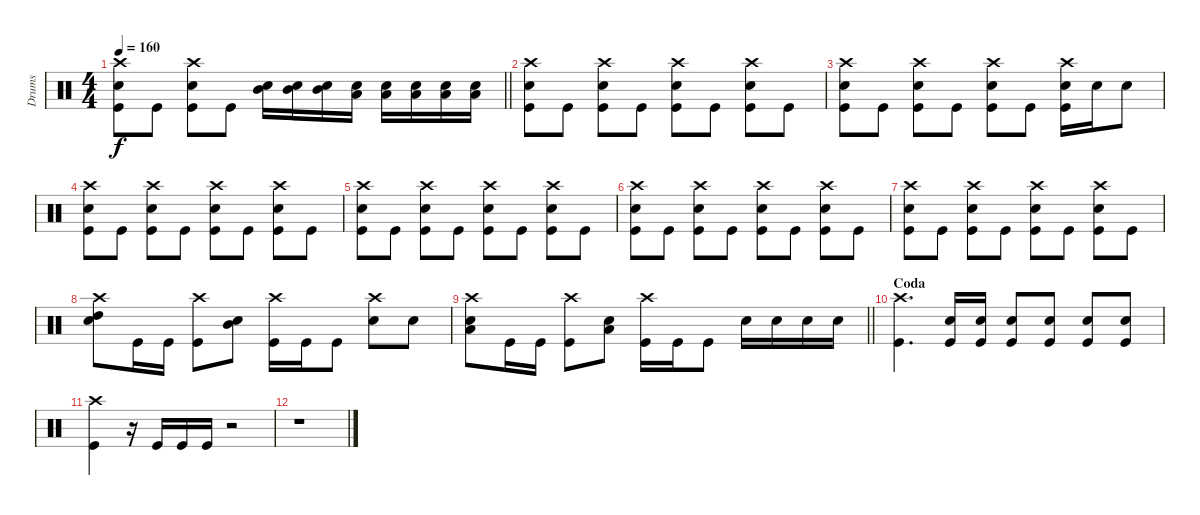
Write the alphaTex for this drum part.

\track ("Drums " "Drums ") {instrument percussion}
\staff {score}
\articulation defaults
\ts (4 4)
\tempo 160
\clef neutral
\barLineRight lightlight
\ks c
("Crash high (hit)" "Electric Snare (hit)" "Kick (hit)").8{dy f} "Kick (hit)".8 ("Crash high (hit)" "Electric Snare (hit)" "Kick (hit)").8 "Kick (hit)".8 ("Mid Tom (hit)" "Electric Snare (hit)").16 ("Mid Tom (hit)" "Electric Snare (hit)").16 ("Mid Tom (hit)" "Electric Snare (hit)").16 ("Low Tom (hit)" "Electric Snare (hit)").16 ("Low Tom (hit)" "Electric Snare (hit)").16 ("Low Tom (hit)" "Electric Snare (hit)").16 ("Low Floor Tom (hit)" "Electric Snare (hit)").16 ("Low Floor Tom (hit)" "Electric Snare (hit)").16 |
("Crash high (hit)" "Electric Snare (hit)" "Kick (hit)").8 "Kick (hit)".8 ("Crash high (hit)" "Electric Snare (hit)" "Kick (hit)").8 "Kick (hit)".8 ("Crash high (hit)" "Electric Snare (hit)" "Kick (hit)").8 "Kick (hit)".8 ("Crash high (hit)" "Electric Snare (hit)" "Kick (hit)").8 "Kick (hit)".8 |
("Crash high (hit)" "Electric Snare (hit)" "Kick (hit)").8 "Kick (hit)".8 ("Crash high (hit)" "Electric Snare (hit)" "Kick (hit)").8 "Kick (hit)".8 ("Crash high (hit)" "Electric Snare (hit)" "Kick (hit)").8 "Kick (hit)".8 ("Crash high (hit)" "Electric Snare (hit)" "Kick (hit)").16 "Electric Snare (hit)".16 "Electric Snare (hit)".8 |
("Crash high (hit)" "Electric Snare (hit)" "Kick (hit)").8 "Kick (hit)".8 ("Crash high (hit)" "Electric Snare (hit)" "Kick (hit)").8 "Kick (hit)".8 ("Crash high (hit)" "Electric Snare (hit)" "Kick (hit)").8 "Kick (hit)".8 ("Crash high (hit)" "Electric Snare (hit)" "Kick (hit)").8 "Kick (hit)".8 |
("Crash high (hit)" "Electric Snare (hit)" "Kick (hit)").8 "Kick (hit)".8 ("Crash high (hit)" "Electric Snare (hit)" "Kick (hit)").8 "Kick (hit)".8 ("Crash high (hit)" "Electric Snare (hit)" "Kick (hit)").8 "Kick (hit)".8 ("Crash high (hit)" "Electric Snare (hit)" "Kick (hit)").8 "Kick (hit)".8 |
("Crash high (hit)" "Electric Snare (hit)" "Kick (hit)").8 "Kick (hit)".8 ("Crash high (hit)" "Electric Snare (hit)" "Kick (hit)").8 "Kick (hit)".8 ("Crash high (hit)" "Electric Snare (hit)" "Kick (hit)").8 "Kick (hit)".8 ("Crash high (hit)" "Electric Snare (hit)" "Kick (hit)").8 "Kick (hit)".8 |
("Crash high (hit)" "Electric Snare (hit)" "Kick (hit)").8 "Kick (hit)".8 ("Crash high (hit)" "Electric Snare (hit)" "Kick (hit)").8 "Kick (hit)".8 ("Crash high (hit)" "Electric Snare (hit)" "Kick (hit)").8 "Kick (hit)".8 ("Crash high (hit)" "Electric Snare (hit)" "Kick (hit)").8 "Kick (hit)".8 |
("Crash high (hit)" "High Tom (hit)" "Electric Snare (hit)").8 "Kick (hit)".16 "Kick (hit)".16 ("Crash high (hit)" "Kick (hit)").8 ("Mid Tom (hit)" "Electric Snare (hit)").8 ("Crash high (hit)" "Kick (hit)").16 "Kick (hit)".16 "Kick (hit)".8 ("Crash high (hit)" "Electric Snare (hit)").8 "Electric Snare (hit)".8 |
\barLineRight lightlight
("Crash high (hit)" "Low Tom (hit)" "Electric Snare (hit)").8 "Kick (hit)".16 "Kick (hit)".16 ("Crash high (hit)" "Kick (hit)").8 ("Low Floor Tom (hit)" "Electric Snare (hit)").8 ("Crash high (hit)" "Kick (hit)").16 "Kick (hit)".16 "Kick (hit)".8 "Electric Snare (hit)".16 "Electric Snare (hit)".16 "Electric Snare (hit)".16 "Electric Snare (hit)".16 |
\section ("" "Coda")
("Crash high (hit)" "Kick (hit)").4{d} ("Electric Snare (hit)" "Kick (hit)").16 ("Electric Snare (hit)" "Kick (hit)").16 ("Electric Snare (hit)" "Kick (hit)").8 ("Electric Snare (hit)" "Kick (hit)").8 ("Electric Snare (hit)" "Kick (hit)").8 ("Electric Snare (hit)" "Kick (hit)").8 |
("Crash high (hit)" "Kick (hit)").4 r.16 "Kick (hit)".16 "Kick (hit)".16 "Kick (hit)".16 r.2 |
r.1
